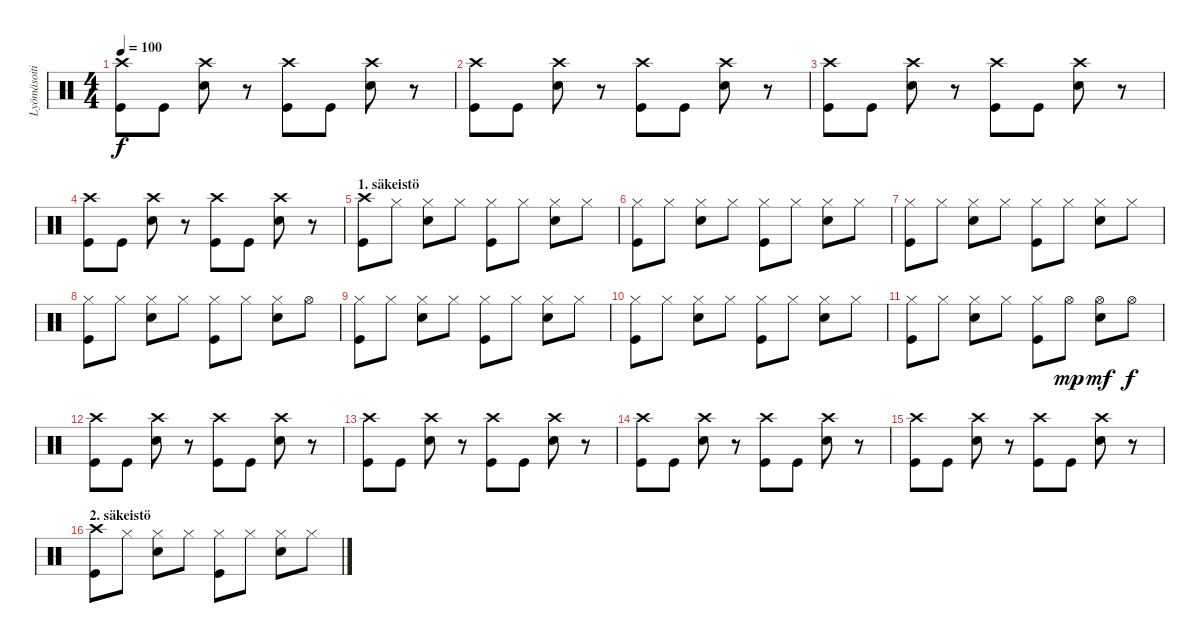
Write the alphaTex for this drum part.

\track ("Lyömäsoitin" "Lyömäsoiti") {instrument percussion}
\staff {score}
\articulation defaults
\ts (4 4)
\tempo 100
\clef neutral
\ks c
("Crash high (hit)" "Kick (hit)").8{dy f} "Kick (hit)".8 ("Crash high (hit)" "Electric Snare (hit)").8 r.8 ("Crash high (hit)" "Kick (hit)").8 "Kick (hit)".8 ("Crash high (hit)" "Electric Snare (hit)").8 r.8 |
("Crash high (hit)" "Kick (hit)").8 "Kick (hit)".8 ("Crash high (hit)" "Electric Snare (hit)").8 r.8 ("Crash high (hit)" "Kick (hit)").8 "Kick (hit)".8 ("Crash high (hit)" "Electric Snare (hit)").8 r.8 |
("Crash high (hit)" "Kick (hit)").8 "Kick (hit)".8 ("Crash high (hit)" "Electric Snare (hit)").8 r.8 ("Crash high (hit)" "Kick (hit)").8 "Kick (hit)".8 ("Crash high (hit)" "Electric Snare (hit)").8 r.8 |
("Crash high (hit)" "Kick (hit)").8 "Kick (hit)".8 ("Crash high (hit)" "Electric Snare (hit)").8 r.8 ("Crash high (hit)" "Kick (hit)").8 "Kick (hit)".8 ("Crash high (hit)" "Electric Snare (hit)").8 r.8 |
\section ("" "1. säkeistö")
("Crash high (hit)" "Kick (hit)").8 "Hi-Hat (closed)".8 ("Hi-Hat (closed)" "Electric Snare (hit)").8 "Hi-Hat (closed)".8 ("Hi-Hat (closed)" "Kick (hit)").8 "Hi-Hat (closed)".8 ("Hi-Hat (closed)" "Electric Snare (hit)").8 "Hi-Hat (closed)".8 |
("Hi-Hat (closed)" "Kick (hit)").8 "Hi-Hat (closed)".8 ("Hi-Hat (closed)" "Electric Snare (hit)").8 "Hi-Hat (closed)".8 ("Hi-Hat (closed)" "Kick (hit)").8 "Hi-Hat (closed)".8 ("Hi-Hat (closed)" "Electric Snare (hit)").8 "Hi-Hat (closed)".8 |
("Hi-Hat (closed)" "Kick (hit)").8 "Hi-Hat (closed)".8 ("Hi-Hat (closed)" "Electric Snare (hit)").8 "Hi-Hat (closed)".8 ("Hi-Hat (closed)" "Kick (hit)").8 "Hi-Hat (closed)".8 ("Hi-Hat (closed)" "Electric Snare (hit)").8 "Hi-Hat (closed)".8 |
("Hi-Hat (closed)" "Kick (hit)").8 "Hi-Hat (closed)".8 ("Hi-Hat (closed)" "Electric Snare (hit)").8 "Hi-Hat (closed)".8 ("Hi-Hat (closed)" "Kick (hit)").8 "Hi-Hat (closed)".8 ("Hi-Hat (closed)" "Electric Snare (hit)").8 "Hi-Hat (open)".8 |
("Hi-Hat (closed)" "Kick (hit)").8 "Hi-Hat (closed)".8 ("Hi-Hat (closed)" "Electric Snare (hit)").8 "Hi-Hat (closed)".8 ("Hi-Hat (closed)" "Kick (hit)").8 "Hi-Hat (closed)".8 ("Hi-Hat (closed)" "Electric Snare (hit)").8 "Hi-Hat (closed)".8 |
("Hi-Hat (closed)" "Kick (hit)").8 "Hi-Hat (closed)".8 ("Hi-Hat (closed)" "Electric Snare (hit)").8 "Hi-Hat (closed)".8 ("Hi-Hat (closed)" "Kick (hit)").8 "Hi-Hat (closed)".8 ("Hi-Hat (closed)" "Electric Snare (hit)").8 "Hi-Hat (closed)".8 |
("Hi-Hat (closed)" "Kick (hit)").8 "Hi-Hat (closed)".8 ("Hi-Hat (closed)" "Electric Snare (hit)").8 "Hi-Hat (closed)".8 ("Hi-Hat (closed)" "Kick (hit)").8 "Hi-Hat (open)".8{dy mp} ("Hi-Hat (open)" "Electric Snare (hit)").8{dy mf} "Hi-Hat (open)".8{dy f} |
("Crash high (hit)" "Kick (hit)").8 "Kick (hit)".8 ("Crash high (hit)" "Electric Snare (hit)").8 r.8 ("Crash high (hit)" "Kick (hit)").8 "Kick (hit)".8 ("Crash high (hit)" "Electric Snare (hit)").8 r.8 |
("Crash high (hit)" "Kick (hit)").8 "Kick (hit)".8 ("Crash high (hit)" "Electric Snare (hit)").8 r.8 ("Crash high (hit)" "Kick (hit)").8 "Kick (hit)".8 ("Crash high (hit)" "Electric Snare (hit)").8 r.8 |
("Crash high (hit)" "Kick (hit)").8 "Kick (hit)".8 ("Crash high (hit)" "Electric Snare (hit)").8 r.8 ("Crash high (hit)" "Kick (hit)").8 "Kick (hit)".8 ("Crash high (hit)" "Electric Snare (hit)").8 r.8 |
("Crash high (hit)" "Kick (hit)").8 "Kick (hit)".8 ("Crash high (hit)" "Electric Snare (hit)").8 r.8 ("Crash high (hit)" "Kick (hit)").8 "Kick (hit)".8 ("Crash high (hit)" "Electric Snare (hit)").8 r.8 |
\section ("" "2. säkeistö")
("Crash high (hit)" "Kick (hit)").8 "Hi-Hat (closed)".8 ("Hi-Hat (closed)" "Electric Snare (hit)").8 "Hi-Hat (closed)".8 ("Hi-Hat (closed)" "Kick (hit)").8 "Hi-Hat (closed)".8 ("Hi-Hat (closed)" "Electric Snare (hit)").8 "Hi-Hat (closed)".8
